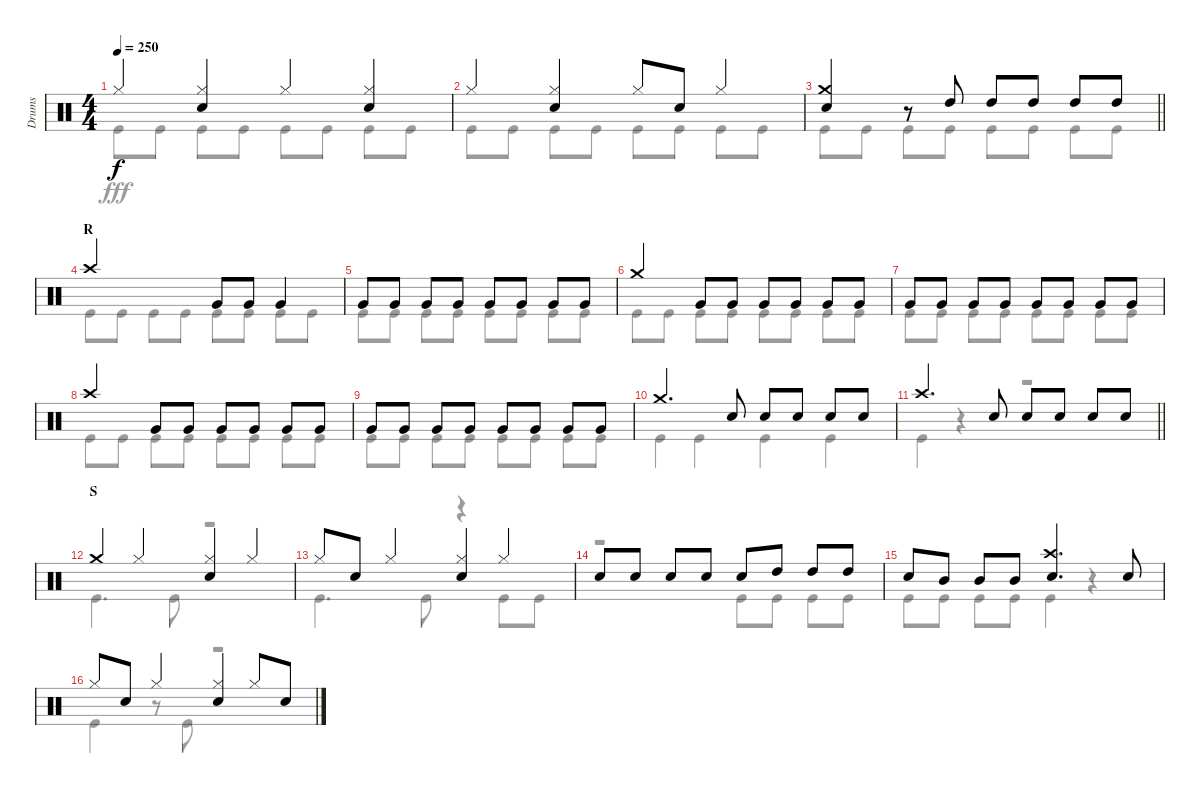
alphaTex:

\track ("Drums" "Drums") {instrument percussion}
\staff {score}
\articulation defaults
\voice
\ts (4 4)
\tempo 250
\clef neutral
\ks c "Hi-Hat (closed)".4{dy f}
("Hi-Hat (closed)" "Snare (hit) 2").4 "Hi-Hat (closed)".4 ("Hi-Hat (closed)" "Snare (hit) 2").4 |
"Hi-Hat (closed)".4 ("Hi-Hat (closed)" "Snare (hit) 2").4 "Hi-Hat (closed)".8 "Snare (hit) 2".8 "Hi-Hat (closed)".4 |
\barLineRight lightlight
("Crash medium (hit)" "Snare (hit) 2").4 r.8 "High Tom (hit)".8 "High Tom (hit)".8 "High Tom (hit)".8 "High Tom (hit)".8 "High Tom (hit)".8 |
\section ("" "R")
"Crash high (hit)".2 "Very Low Tom (hit)".8 "Very Low Tom (hit)".8 "Very Low Tom (hit)".4 |
"Very Low Tom (hit)".8 "Very Low Tom (hit)".8 "Very Low Tom (hit)".8 "Very Low Tom (hit)".8 "Very Low Tom (hit)".8 "Very Low Tom (hit)".8 "Very Low Tom (hit)".8 "Very Low Tom (hit)".8 |
"Crash medium (hit)".4 "Very Low Tom (hit)".8 "Very Low Tom (hit)".8 "Very Low Tom (hit)".8 "Very Low Tom (hit)".8 "Very Low Tom (hit)".8 "Very Low Tom (hit)".8 |
"Very Low Tom (hit)".8 "Very Low Tom (hit)".8 "Very Low Tom (hit)".8 "Very Low Tom (hit)".8 "Very Low Tom (hit)".8 "Very Low Tom (hit)".8 "Very Low Tom (hit)".8 "Very Low Tom (hit)".8 |
"Crash high (hit)".4 "Very Low Tom (hit)".8 "Very Low Tom (hit)".8 "Very Low Tom (hit)".8 "Very Low Tom (hit)".8 "Very Low Tom (hit)".8 "Very Low Tom (hit)".8 |
"Very Low Tom (hit)".8 "Very Low Tom (hit)".8 "Very Low Tom (hit)".8 "Very Low Tom (hit)".8 "Very Low Tom (hit)".8 "Very Low Tom (hit)".8 "Very Low Tom (hit)".8 "Very Low Tom (hit)".8 |
"Crash medium (hit)".4{d} "Snare (hit) 2".8 "Snare (hit) 2".8 "Snare (hit) 2".8 "Snare (hit) 2".8 "Snare (hit) 2".8 |
\barLineRight lightlight "Crash high (hit)".4{d} "Snare (hit) 2".8 "Snare (hit) 2".8 "Snare (hit) 2".8 "Snare (hit) 2".8 "Snare (hit) 2".8
|
\section ("" "S")
"Crash medium (hit)".4 "Hi-Hat (closed)".4 ("Hi-Hat (closed)" "Snare (hit) 2").4 "Hi-Hat (closed)".4 |
"Hi-Hat (closed)".8 "Snare (hit) 2".8 "Hi-Hat (closed)".4 ("Hi-Hat (closed)" "Snare (hit) 2").4 "Hi-Hat (closed)".4 |
"Snare (hit) 2".8 "Snare (hit) 2".8 "Snare (hit) 2".8 "Snare (hit) 2".8 "Snare (hit) 2".8 "High Tom (hit)".8 "High Tom (hit)".8 "High Tom (hit)".8 |
"Snare (hit) 2".8 "Mid Tom (hit)".8 "Mid Tom (hit)".8 "Mid Tom (hit)".8 ("Crash high (hit)" "Snare (hit) 2").4{d} "Snare (hit) 2".8 |
"Hi-Hat (closed)".8 "Snare (hit) 2".8 "Hi-Hat (closed)".4 ("Hi-Hat (closed)" "Snare (hit) 2").4 "Hi-Hat (closed)".8 "Snare (hit) 2".8
\voice
\clef neutral
\ottava regular
\simile none
\ks c "Kick (hit)".8{dy fff} "Kick (hit)".8 "Kick (hit)".8 "Kick (hit)".8 "Kick (hit)".8 "Kick (hit)".8 "Kick (hit)".8 "Kick (hit)".8
|
"Kick (hit)".8 "Kick (hit)".8 "Kick (hit)".8 "Kick (hit)".8 "Kick (hit)".8 "Kick (hit)".8 "Kick (hit)".8 "Kick (hit)".8 |
\barLineRight lightlight "Kick (hit)".8 "Kick (hit)".8 "Kick (hit)".8 "Kick (hit)".8 "Kick (hit)".8 "Kick (hit)".8 "Kick (hit)".8 "Kick (hit)".8
|
"Kick (hit)".8 "Kick (hit)".8 "Kick (hit)".8 "Kick (hit)".8 "Kick (hit)".8 "Kick (hit)".8 "Kick (hit)".8 "Kick (hit)".8 |
"Kick (hit)".8 "Kick (hit)".8 "Kick (hit)".8 "Kick (hit)".8 "Kick (hit)".8 "Kick (hit)".8 "Kick (hit)".8 "Kick (hit)".8 |
"Kick (hit)".8 "Kick (hit)".8 "Kick (hit)".8 "Kick (hit)".8 "Kick (hit)".8 "Kick (hit)".8 "Kick (hit)".8 "Kick (hit)".8 |
"Kick (hit)".8 "Kick (hit)".8 "Kick (hit)".8 "Kick (hit)".8 "Kick (hit)".8 "Kick (hit)".8 "Kick (hit)".8 "Kick (hit)".8 |
"Kick (hit)".8 "Kick (hit)".8 "Kick (hit)".8 "Kick (hit)".8 "Kick (hit)".8 "Kick (hit)".8 "Kick (hit)".8 "Kick (hit)".8 |
"Kick (hit)".8 "Kick (hit)".8 "Kick (hit)".8 "Kick (hit)".8 "Kick (hit)".8 "Kick (hit)".8 "Kick (hit)".8 "Kick (hit)".8 |
"Kick (hit)".4 "Kick (hit)".4 "Kick (hit)".4 "Kick (hit)".4 |
\barLineRight lightlight "Kick (hit)".4
r.4 r.2 |
"Kick (hit)".4{d} "Kick (hit)".8 r.2 |
"Kick (hit)".4{d} "Kick (hit)".8 r.4 "Kick (hit)".8 "Kick (hit)".8 |
r.2 "Kick (hit)".8 "Kick (hit)".8 "Kick (hit)".8 "Kick (hit)".8 |
"Kick (hit)".8 "Kick (hit)".8 "Kick (hit)".8 "Kick (hit)".8 "Kick (hit)".4 r.4 |
"Kick (hit)".4 r.8 "Kick (hit)".8 r.2
